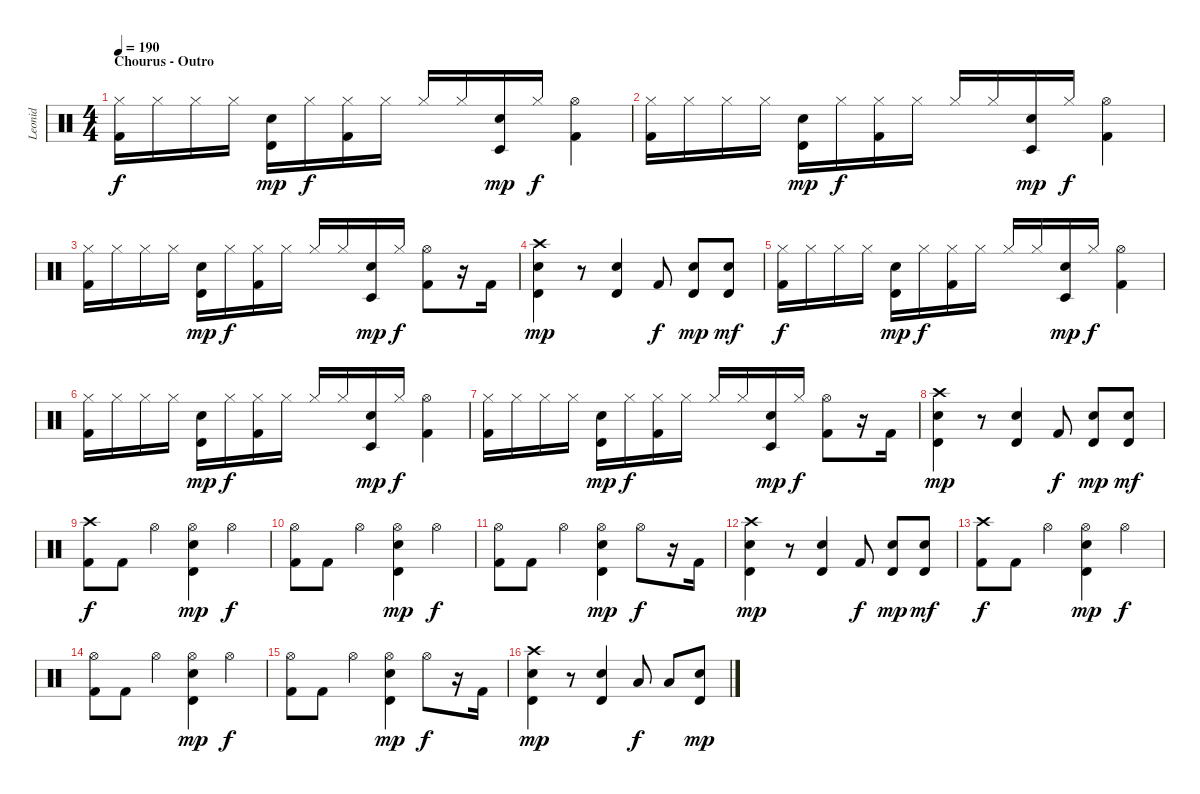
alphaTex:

\track ("Leonid" "Leonid") {instrument percussion}
\staff {score}
\articulation defaults
\ts (4 4)
\section ("" "Chourus - Outro")
\tempo 190
\clef neutral
\ks c
("Hi-Hat (closed)" "Kick (hit) 2").16{dy f} "Hi-Hat (closed)".16 "Hi-Hat (closed)".16 "Hi-Hat (closed)".16 ("Timbale high (hit)" "Electric Snare (hit)").16{dy mp} "Hi-Hat (closed)".16{dy f} ("Hi-Hat (closed)" "Kick (hit) 2").16 "Hi-Hat (closed)".16 "Hi-Hat (closed)".16 "Hi-Hat (closed)".16 ("Timbale low (hit)" "Electric Snare (hit)").16{dy mp} "Hi-Hat (closed)".16{dy f} ("Hi-Hat (open)" "Kick (hit) 2").4 |
("Hi-Hat (closed)" "Kick (hit) 2").16 "Hi-Hat (closed)".16 "Hi-Hat (closed)".16 "Hi-Hat (closed)".16 ("Timbale high (hit)" "Electric Snare (hit)").16{dy mp} "Hi-Hat (closed)".16{dy f} ("Hi-Hat (closed)" "Kick (hit) 2").16 "Hi-Hat (closed)".16 "Hi-Hat (closed)".16 "Hi-Hat (closed)".16 ("Timbale low (hit)" "Electric Snare (hit)").16{dy mp} "Hi-Hat (closed)".16{dy f} ("Hi-Hat (open)" "Kick (hit) 2").4 |
("Hi-Hat (closed)" "Kick (hit) 2").16 "Hi-Hat (closed)".16 "Hi-Hat (closed)".16 "Hi-Hat (closed)".16 ("Timbale high (hit)" "Electric Snare (hit)").16{dy mp} "Hi-Hat (closed)".16{dy f} ("Hi-Hat (closed)" "Kick (hit) 2").16 "Hi-Hat (closed)".16 "Hi-Hat (closed)".16 "Hi-Hat (closed)".16 ("Timbale low (hit)" "Electric Snare (hit)").16{dy mp} "Hi-Hat (closed)".16{dy f} ("Hi-Hat (open)" "Kick (hit) 2").8 r.16 "Kick (hit) 2".16 |
("Crash high (hit)" "Timbale high (hit)" "Electric Snare (hit)").4{dy mp} r.8 ("Timbale high (hit)" "Electric Snare (hit)").4 "Kick (hit) 2".8{dy f} ("Timbale high (hit)" "Electric Snare (hit)").8{dy mp} ("Timbale high (hit)" "Electric Snare (hit)").8{dy mf} |
("Hi-Hat (closed)" "Kick (hit) 2").16{dy f} "Hi-Hat (closed)".16 "Hi-Hat (closed)".16 "Hi-Hat (closed)".16 ("Timbale high (hit)" "Electric Snare (hit)").16{dy mp} "Hi-Hat (closed)".16{dy f} ("Hi-Hat (closed)" "Kick (hit) 2").16 "Hi-Hat (closed)".16 "Hi-Hat (closed)".16 "Hi-Hat (closed)".16 ("Timbale low (hit)" "Electric Snare (hit)").16{dy mp} "Hi-Hat (closed)".16{dy f} ("Hi-Hat (open)" "Kick (hit) 2").4 |
("Hi-Hat (closed)" "Kick (hit) 2").16 "Hi-Hat (closed)".16 "Hi-Hat (closed)".16 "Hi-Hat (closed)".16 ("Timbale high (hit)" "Electric Snare (hit)").16{dy mp} "Hi-Hat (closed)".16{dy f} ("Hi-Hat (closed)" "Kick (hit) 2").16 "Hi-Hat (closed)".16 "Hi-Hat (closed)".16 "Hi-Hat (closed)".16 ("Timbale low (hit)" "Electric Snare (hit)").16{dy mp} "Hi-Hat (closed)".16{dy f} ("Hi-Hat (open)" "Kick (hit) 2").4 |
("Hi-Hat (closed)" "Kick (hit) 2").16 "Hi-Hat (closed)".16 "Hi-Hat (closed)".16 "Hi-Hat (closed)".16 ("Timbale high (hit)" "Electric Snare (hit)").16{dy mp} "Hi-Hat (closed)".16{dy f} ("Hi-Hat (closed)" "Kick (hit) 2").16 "Hi-Hat (closed)".16 "Hi-Hat (closed)".16 "Hi-Hat (closed)".16 ("Timbale low (hit)" "Electric Snare (hit)").16{dy mp} "Hi-Hat (closed)".16{dy f} ("Hi-Hat (open)" "Kick (hit) 2").8 r.16 "Kick (hit) 2".16 |
("Crash high (hit)" "Timbale high (hit)" "Electric Snare (hit)").4{dy mp} r.8 ("Timbale high (hit)" "Electric Snare (hit)").4 "Kick (hit) 2".8{dy f} ("Timbale high (hit)" "Electric Snare (hit)").8{dy mp} ("Timbale high (hit)" "Electric Snare (hit)").8{dy mf} |
("Crash high (hit)" "Kick (hit) 2").8{dy f} "Kick (hit) 2".8 "Hi-Hat (open)".4 ("Hi-Hat (open)" "Timbale high (hit)" "Electric Snare (hit)").4{dy mp} "Hi-Hat (open)".4{dy f} |
("Hi-Hat (open)" "Kick (hit) 2").8 "Kick (hit) 2".8 "Hi-Hat (open)".4 ("Hi-Hat (open)" "Timbale high (hit)" "Electric Snare (hit)").4{dy mp} "Hi-Hat (open)".4{dy f} |
("Hi-Hat (open)" "Kick (hit) 2").8 "Kick (hit) 2".8 "Hi-Hat (open)".4 ("Hi-Hat (open)" "Timbale high (hit)" "Electric Snare (hit)").4{dy mp} "Hi-Hat (open)".8{dy f} r.16 "Kick (hit) 2".16 |
("Crash high (hit)" "Timbale high (hit)" "Electric Snare (hit)").4{dy mp} r.8 ("Timbale high (hit)" "Electric Snare (hit)").4 "Kick (hit) 2".8{dy f} ("Timbale high (hit)" "Electric Snare (hit)").8{dy mp} ("Timbale high (hit)" "Electric Snare (hit)").8{dy mf} |
("Crash high (hit)" "Kick (hit) 2").8{dy f} "Kick (hit) 2".8 "Hi-Hat (open)".4 ("Hi-Hat (open)" "Timbale high (hit)" "Electric Snare (hit)").4{dy mp} "Hi-Hat (open)".4{dy f} |
("Hi-Hat (open)" "Kick (hit) 2").8 "Kick (hit) 2".8 "Hi-Hat (open)".4 ("Hi-Hat (open)" "Timbale high (hit)" "Electric Snare (hit)").4{dy mp} "Hi-Hat (open)".4{dy f} |
("Hi-Hat (open)" "Kick (hit) 2").8 "Kick (hit) 2".8 "Hi-Hat (open)".4 ("Hi-Hat (open)" "Timbale high (hit)" "Electric Snare (hit)").4{dy mp} "Hi-Hat (open)".8{dy f} r.16 "Kick (hit) 2".16 |
("Crash high (hit)" "Timbale high (hit)" "Electric Snare (hit)").4{dy mp} r.8 ("Timbale high (hit)" "Electric Snare (hit)").4 "Low Tom (hit)".8{dy f} "Low Floor Tom (hit)".8 ("Timbale high (hit)" "Electric Snare (hit)").8{dy mp}
